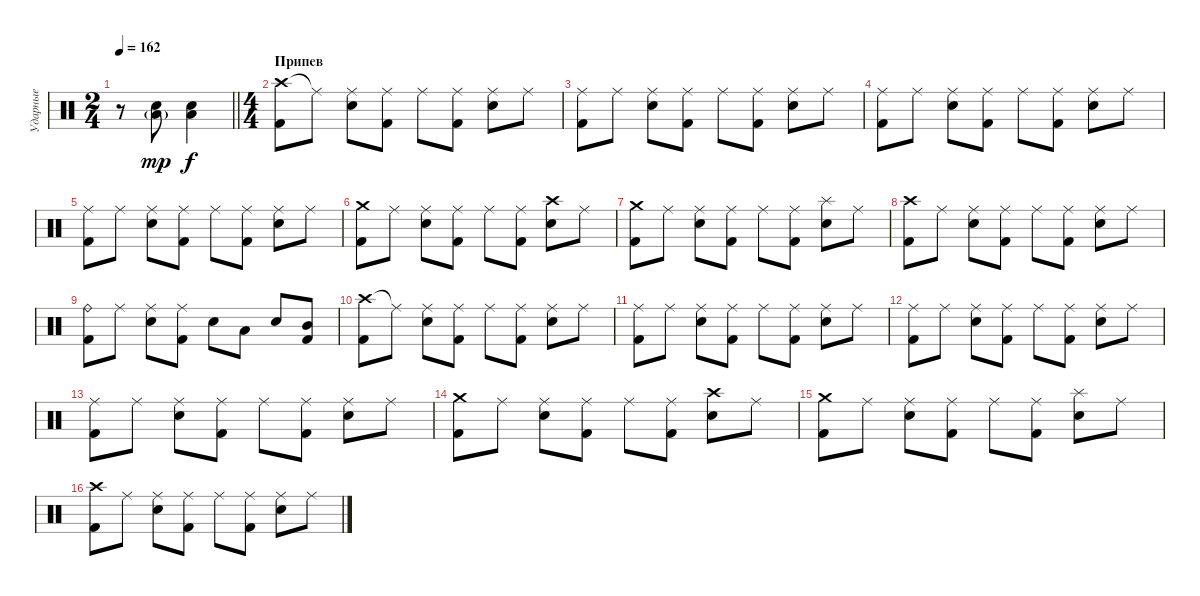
\track ("Ударные" "Ударные") {instrument percussion}
\staff {score}
\articulation defaults
\ts (2 4)
\tempo 162
\clef neutral
\barLineRight lightlight
\ks c
r.8{dy f} ("Low Floor Tom (hit)"{g} "Snare (hit) 2").8{dy mp} ("Low Tom (hit)" "Snare (hit) 2").4{dy f} |
\ts (4 4)
\section ("" "Припев")
("Crash high (hit)" "Kick (hit) 2").8 "Ride (middle)"{t}.8 ("Ride (middle)" "Snare (hit) 2").8 ("Ride (middle)" "Kick (hit) 2").8 "Ride (middle)".8 ("Ride (middle)" "Kick (hit) 2").8 ("Ride (middle)" "Snare (hit) 2").8 "Ride (middle)".8 |
("Ride (middle)" "Kick (hit) 2").8 "Ride (middle)".8 ("Ride (middle)" "Snare (hit) 2").8 ("Ride (middle)" "Kick (hit) 2").8 "Ride (middle)".8 ("Ride (middle)" "Kick (hit) 2").8 ("Ride (middle)" "Snare (hit) 2").8 "Ride (middle)".8 |
("Ride (middle)" "Kick (hit) 2").8 "Ride (middle)".8 ("Ride (middle)" "Snare (hit) 2").8 ("Ride (middle)" "Kick (hit) 2").8 "Ride (middle)".8 ("Ride (middle)" "Kick (hit) 2").8 ("Ride (middle)" "Snare (hit) 2").8 "Ride (middle)".8 |
("Ride (middle)" "Kick (hit) 2").8 "Ride (middle)".8 ("Ride (middle)" "Snare (hit) 2").8 ("Ride (middle)" "Kick (hit) 2").8 "Ride (middle)".8 ("Ride (middle)" "Kick (hit) 2").8 ("Ride (middle)" "Snare (hit) 2").8 "Ride (middle)".8 |
("Crash medium (hit)" "Kick (hit) 2").8 "Ride (middle)".8 ("Ride (middle)" "Snare (hit) 2").8 ("Ride (middle)" "Kick (hit) 2").8 "Ride (middle)".8 ("Ride (middle)" "Kick (hit) 2").8 ("Crash high (hit)" "Snare (hit) 2").8 "Ride (middle)".8 |
("Crash medium (hit)" "Kick (hit) 2").8 "Ride (middle)".8 ("Ride (middle)" "Snare (hit) 2").8 ("Ride (middle)" "Kick (hit) 2").8 "Ride (middle)".8 ("Ride (middle)" "Kick (hit) 2").8 ("Splash (hit)" "Snare (hit) 2").8 "Ride (middle)".8 |
("Crash high (hit)" "Kick (hit) 2").8 "Ride (middle)".8 ("Ride (middle)" "Snare (hit) 2").8 ("Ride (middle)" "Kick (hit) 2").8 "Ride (middle)".8 ("Ride (middle)" "Kick (hit) 2").8 ("Ride (middle)" "Snare (hit) 2").8 "Ride (middle)".8 |
("Ride (bell)" "Kick (hit) 2").8 "Ride (middle)".8 ("Ride (middle)" "Snare (hit) 2").8 ("Ride (middle)" "Kick (hit) 2").8 "Snare (hit) 2".8 "Low Tom (hit)".8 "Snare (hit) 2".8 ("Mid Tom (hit)" "Kick (hit) 2").8 |
("Crash high (hit)" "Kick (hit) 2").8 "Ride (middle)"{t}.8 ("Ride (middle)" "Snare (hit) 2").8 ("Ride (middle)" "Kick (hit) 2").8 "Ride (middle)".8 ("Ride (middle)" "Kick (hit) 2").8 ("Ride (middle)" "Snare (hit) 2").8 "Ride (middle)".8 |
("Ride (middle)" "Kick (hit) 2").8 "Ride (middle)".8 ("Ride (middle)" "Snare (hit) 2").8 ("Ride (middle)" "Kick (hit) 2").8 "Ride (middle)".8 ("Ride (middle)" "Kick (hit) 2").8 ("Ride (middle)" "Snare (hit) 2").8 "Ride (middle)".8 |
("Ride (middle)" "Kick (hit) 2").8 "Ride (middle)".8 ("Ride (middle)" "Snare (hit) 2").8 ("Ride (middle)" "Kick (hit) 2").8 "Ride (middle)".8 ("Ride (middle)" "Kick (hit) 2").8 ("Ride (middle)" "Snare (hit) 2").8 "Ride (middle)".8 |
("Ride (middle)" "Kick (hit) 2").8 "Ride (middle)".8 ("Ride (middle)" "Snare (hit) 2").8 ("Ride (middle)" "Kick (hit) 2").8 "Ride (middle)".8 ("Ride (middle)" "Kick (hit) 2").8 ("Ride (middle)" "Snare (hit) 2").8 "Ride (middle)".8 |
("Crash medium (hit)" "Kick (hit) 2").8 "Ride (middle)".8 ("Ride (middle)" "Snare (hit) 2").8 ("Ride (middle)" "Kick (hit) 2").8 "Ride (middle)".8 ("Ride (middle)" "Kick (hit) 2").8 ("Crash high (hit)" "Snare (hit) 2").8 "Ride (middle)".8 |
("Crash medium (hit)" "Kick (hit) 2").8 "Ride (middle)".8 ("Ride (middle)" "Snare (hit) 2").8 ("Ride (middle)" "Kick (hit) 2").8 "Ride (middle)".8 ("Ride (middle)" "Kick (hit) 2").8 ("Splash (hit)" "Snare (hit) 2").8 "Ride (middle)".8 |
("Crash high (hit)" "Kick (hit) 2").8 "Ride (middle)".8 ("Ride (middle)" "Snare (hit) 2").8 ("Ride (middle)" "Kick (hit) 2").8 "Ride (middle)".8 ("Ride (middle)" "Kick (hit) 2").8 ("Ride (middle)" "Snare (hit) 2").8 "Ride (middle)".8
